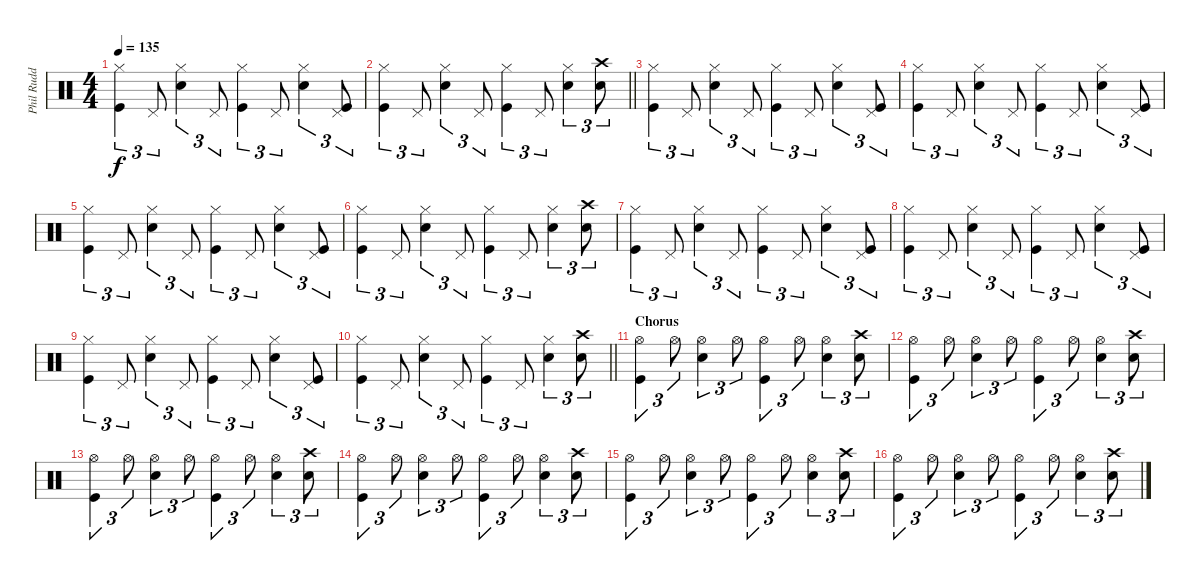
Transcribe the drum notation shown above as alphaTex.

\track ("Phil Rudd" "Phil Rudd") {instrument percussion}
\staff {score}
\articulation defaults
\ts (4 4)
\tempo 135
\clef neutral
\ks c
("Hi-Hat (closed)" "Kick (hit)").4{tu (3 2) dy f} "Pedal Hi-Hat (hit)".8{tu (3 2)} ("Hi-Hat (closed)" "Snare (hit) 2").4{tu (3 2)} "Pedal Hi-Hat (hit)".8{tu (3 2)} ("Hi-Hat (closed)" "Kick (hit)").4{tu (3 2)} "Pedal Hi-Hat (hit)".8{tu (3 2)} ("Hi-Hat (closed)" "Snare (hit) 2").4{tu (3 2)} ("Pedal Hi-Hat (hit)" "Kick (hit)").8{tu (3 2)} |
\barLineRight lightlight
("Hi-Hat (closed)" "Kick (hit)").4{tu (3 2)} "Pedal Hi-Hat (hit)".8{tu (3 2)} ("Hi-Hat (closed)" "Snare (hit) 2").4{tu (3 2)} "Pedal Hi-Hat (hit)".8{tu (3 2)} ("Hi-Hat (closed)" "Kick (hit)").4{tu (3 2)} "Pedal Hi-Hat (hit)".8{tu (3 2)} ("Hi-Hat (closed)" "Snare (hit) 2").4{tu (3 2)} ("Crash high (hit)" "Snare (hit) 2").8{tu (3 2)} |
("Hi-Hat (closed)" "Kick (hit)").4{tu (3 2)} "Pedal Hi-Hat (hit)".8{tu (3 2)} ("Hi-Hat (closed)" "Snare (hit) 2").4{tu (3 2)} "Pedal Hi-Hat (hit)".8{tu (3 2)} ("Hi-Hat (closed)" "Kick (hit)").4{tu (3 2)} "Pedal Hi-Hat (hit)".8{tu (3 2)} ("Hi-Hat (closed)" "Snare (hit) 2").4{tu (3 2)} ("Pedal Hi-Hat (hit)" "Kick (hit)").8{tu (3 2)} |
("Hi-Hat (closed)" "Kick (hit)").4{tu (3 2)} "Pedal Hi-Hat (hit)".8{tu (3 2)} ("Hi-Hat (closed)" "Snare (hit) 2").4{tu (3 2)} "Pedal Hi-Hat (hit)".8{tu (3 2)} ("Hi-Hat (closed)" "Kick (hit)").4{tu (3 2)} "Pedal Hi-Hat (hit)".8{tu (3 2)} ("Hi-Hat (closed)" "Snare (hit) 2").4{tu (3 2)} ("Pedal Hi-Hat (hit)" "Kick (hit)").8{tu (3 2)} |
("Hi-Hat (closed)" "Kick (hit)").4{tu (3 2)} "Pedal Hi-Hat (hit)".8{tu (3 2)} ("Hi-Hat (closed)" "Snare (hit) 2").4{tu (3 2)} "Pedal Hi-Hat (hit)".8{tu (3 2)} ("Hi-Hat (closed)" "Kick (hit)").4{tu (3 2)} "Pedal Hi-Hat (hit)".8{tu (3 2)} ("Hi-Hat (closed)" "Snare (hit) 2").4{tu (3 2)} ("Pedal Hi-Hat (hit)" "Kick (hit)").8{tu (3 2)} |
("Hi-Hat (closed)" "Kick (hit)").4{tu (3 2)} "Pedal Hi-Hat (hit)".8{tu (3 2)} ("Hi-Hat (closed)" "Snare (hit) 2").4{tu (3 2)} "Pedal Hi-Hat (hit)".8{tu (3 2)} ("Hi-Hat (closed)" "Kick (hit)").4{tu (3 2)} "Pedal Hi-Hat (hit)".8{tu (3 2)} ("Hi-Hat (closed)" "Snare (hit) 2").4{tu (3 2)} ("Crash high (hit)" "Snare (hit) 2").8{tu (3 2)} |
("Hi-Hat (closed)" "Kick (hit)").4{tu (3 2)} "Pedal Hi-Hat (hit)".8{tu (3 2)} ("Hi-Hat (closed)" "Snare (hit) 2").4{tu (3 2)} "Pedal Hi-Hat (hit)".8{tu (3 2)} ("Hi-Hat (closed)" "Kick (hit)").4{tu (3 2)} "Pedal Hi-Hat (hit)".8{tu (3 2)} ("Hi-Hat (closed)" "Snare (hit) 2").4{tu (3 2)} ("Pedal Hi-Hat (hit)" "Kick (hit)").8{tu (3 2)} |
("Hi-Hat (closed)" "Kick (hit)").4{tu (3 2)} "Pedal Hi-Hat (hit)".8{tu (3 2)} ("Hi-Hat (closed)" "Snare (hit) 2").4{tu (3 2)} "Pedal Hi-Hat (hit)".8{tu (3 2)} ("Hi-Hat (closed)" "Kick (hit)").4{tu (3 2)} "Pedal Hi-Hat (hit)".8{tu (3 2)} ("Hi-Hat (closed)" "Snare (hit) 2").4{tu (3 2)} ("Pedal Hi-Hat (hit)" "Kick (hit)").8{tu (3 2)} |
("Hi-Hat (closed)" "Kick (hit)").4{tu (3 2)} "Pedal Hi-Hat (hit)".8{tu (3 2)} ("Hi-Hat (closed)" "Snare (hit) 2").4{tu (3 2)} "Pedal Hi-Hat (hit)".8{tu (3 2)} ("Hi-Hat (closed)" "Kick (hit)").4{tu (3 2)} "Pedal Hi-Hat (hit)".8{tu (3 2)} ("Hi-Hat (closed)" "Snare (hit) 2").4{tu (3 2)} ("Pedal Hi-Hat (hit)" "Kick (hit)").8{tu (3 2)} |
\barLineRight lightlight
("Hi-Hat (closed)" "Kick (hit)").4{tu (3 2)} "Pedal Hi-Hat (hit)".8{tu (3 2)} ("Hi-Hat (closed)" "Snare (hit) 2").4{tu (3 2)} "Pedal Hi-Hat (hit)".8{tu (3 2)} ("Hi-Hat (closed)" "Kick (hit)").4{tu (3 2)} "Pedal Hi-Hat (hit)".8{tu (3 2)} ("Hi-Hat (closed)" "Snare (hit) 2").4{tu (3 2)} ("Crash high (hit)" "Snare (hit) 2").8{tu (3 2)} |
\section ("" "Chorus")
("Hi-Hat (open)" "Kick (hit)").4{tu (3 2)} "Hi-Hat (open)".8{tu (3 2)} ("Hi-Hat (open)" "Snare (hit) 2").4{tu (3 2)} "Hi-Hat (open)".8{tu (3 2)} ("Hi-Hat (open)" "Kick (hit)").4{tu (3 2)} "Hi-Hat (open)".8{tu (3 2)} ("Hi-Hat (open)" "Snare (hit) 2").4{tu (3 2)} ("Crash high (hit)" "Snare (hit) 2").8{tu (3 2)} |
("Hi-Hat (open)" "Kick (hit)").4{tu (3 2)} "Hi-Hat (open)".8{tu (3 2)} ("Hi-Hat (open)" "Snare (hit) 2").4{tu (3 2)} "Hi-Hat (open)".8{tu (3 2)} ("Hi-Hat (open)" "Kick (hit)").4{tu (3 2)} "Hi-Hat (open)".8{tu (3 2)} ("Hi-Hat (open)" "Snare (hit) 2").4{tu (3 2)} ("Crash high (hit)" "Snare (hit) 2").8{tu (3 2)} |
("Hi-Hat (open)" "Kick (hit)").4{tu (3 2)} "Hi-Hat (open)".8{tu (3 2)} ("Hi-Hat (open)" "Snare (hit) 2").4{tu (3 2)} "Hi-Hat (open)".8{tu (3 2)} ("Hi-Hat (open)" "Kick (hit)").4{tu (3 2)} "Hi-Hat (open)".8{tu (3 2)} ("Hi-Hat (open)" "Snare (hit) 2").4{tu (3 2)} ("Crash high (hit)" "Snare (hit) 2").8{tu (3 2)} |
("Hi-Hat (open)" "Kick (hit)").4{tu (3 2)} "Hi-Hat (open)".8{tu (3 2)} ("Hi-Hat (open)" "Snare (hit) 2").4{tu (3 2)} "Hi-Hat (open)".8{tu (3 2)} ("Hi-Hat (open)" "Kick (hit)").4{tu (3 2)} "Hi-Hat (open)".8{tu (3 2)} ("Hi-Hat (open)" "Snare (hit) 2").4{tu (3 2)} ("Crash high (hit)" "Snare (hit) 2").8{tu (3 2)} |
("Hi-Hat (open)" "Kick (hit)").4{tu (3 2)} "Hi-Hat (open)".8{tu (3 2)} ("Hi-Hat (open)" "Snare (hit) 2").4{tu (3 2)} "Hi-Hat (open)".8{tu (3 2)} ("Hi-Hat (open)" "Kick (hit)").4{tu (3 2)} "Hi-Hat (open)".8{tu (3 2)} ("Hi-Hat (open)" "Snare (hit) 2").4{tu (3 2)} ("Crash high (hit)" "Snare (hit) 2").8{tu (3 2)} |
("Hi-Hat (open)" "Kick (hit)").4{tu (3 2)} "Hi-Hat (open)".8{tu (3 2)} ("Hi-Hat (open)" "Snare (hit) 2").4{tu (3 2)} "Hi-Hat (open)".8{tu (3 2)} ("Hi-Hat (open)" "Kick (hit)").4{tu (3 2)} "Hi-Hat (open)".8{tu (3 2)} ("Hi-Hat (open)" "Snare (hit) 2").4{tu (3 2)} ("Crash high (hit)" "Snare (hit) 2").8{tu (3 2)}
